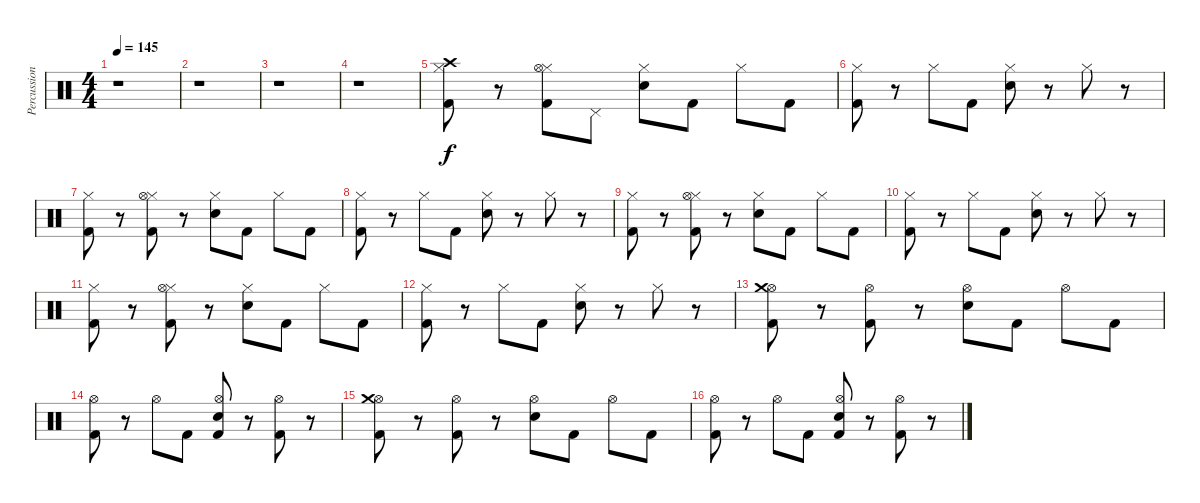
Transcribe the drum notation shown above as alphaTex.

\track ("Percussion" "Percussion") {instrument percussion}
\staff {score}
\articulation defaults
\ts (4 4)
\tempo 145
\clef neutral
\ks c
r.1{dy f} |
r.1 |
r.1 |
r.1 |
("Hi-Hat (closed)" "Crash high (hit)" "Kick (hit) 2").8 r.8 ("Hi-Hat (closed)" "Hi-Hat (open)" "Kick (hit) 2").8 "Pedal Hi-Hat (hit)".8 ("Hi-Hat (closed)" "Electric Snare (hit)").8 "Kick (hit) 2".8 "Hi-Hat (closed)".8 "Kick (hit) 2".8 |
("Hi-Hat (closed)" "Kick (hit) 2").8 r.8 "Hi-Hat (closed)".8 "Kick (hit) 2".8 ("Hi-Hat (closed)" "Electric Snare (hit)").8 r.8 "Hi-Hat (closed)".8 r.8 |
("Hi-Hat (closed)" "Kick (hit) 2").8 r.8 ("Hi-Hat (closed)" "Hi-Hat (open)" "Kick (hit) 2").8 r.8 ("Hi-Hat (closed)" "Electric Snare (hit)").8 "Kick (hit) 2".8 "Hi-Hat (closed)".8 "Kick (hit) 2".8 |
("Hi-Hat (closed)" "Kick (hit) 2").8 r.8 "Hi-Hat (closed)".8 "Kick (hit) 2".8 ("Hi-Hat (closed)" "Electric Snare (hit)").8 r.8 "Hi-Hat (closed)".8 r.8 |
("Hi-Hat (closed)" "Kick (hit) 2").8 r.8 ("Hi-Hat (closed)" "Hi-Hat (open)" "Kick (hit) 2").8 r.8 ("Hi-Hat (closed)" "Electric Snare (hit)").8 "Kick (hit) 2".8 "Hi-Hat (closed)".8 "Kick (hit) 2".8 |
("Hi-Hat (closed)" "Kick (hit) 2").8 r.8 "Hi-Hat (closed)".8 "Kick (hit) 2".8 ("Hi-Hat (closed)" "Electric Snare (hit)").8 r.8 "Hi-Hat (closed)".8 r.8 |
("Hi-Hat (closed)" "Kick (hit) 2").8 r.8 ("Hi-Hat (closed)" "Hi-Hat (open)" "Kick (hit) 2").8 r.8 ("Hi-Hat (closed)" "Electric Snare (hit)").8 "Kick (hit) 2".8 "Hi-Hat (closed)".8 "Kick (hit) 2".8 |
("Hi-Hat (closed)" "Kick (hit) 2").8 r.8 "Hi-Hat (closed)".8 "Kick (hit) 2".8 ("Hi-Hat (closed)" "Electric Snare (hit)").8 r.8 "Hi-Hat (closed)".8 r.8 |
("Hi-Hat (open)" "Crash medium (hit)" "Kick (hit) 2").8 r.8 ("Hi-Hat (open)" "Kick (hit) 2").8 r.8 ("Hi-Hat (open)" "Electric Snare (hit)").8 "Kick (hit) 2".8 "Hi-Hat (open)".8 "Kick (hit) 2".8 |
("Hi-Hat (open)" "Kick (hit) 2").8 r.8 "Hi-Hat (open)".8 "Kick (hit) 2".8 ("Hi-Hat (open)" "Electric Snare (hit)" "Kick (hit) 2").8 r.8 ("Hi-Hat (open)" "Kick (hit) 2").8 r.8 |
("Hi-Hat (open)" "Crash medium (hit)" "Kick (hit) 2").8 r.8 ("Hi-Hat (open)" "Kick (hit) 2").8 r.8 ("Hi-Hat (open)" "Electric Snare (hit)").8 "Kick (hit) 2".8 "Hi-Hat (open)".8 "Kick (hit) 2".8 |
("Hi-Hat (open)" "Kick (hit) 2").8 r.8 "Hi-Hat (open)".8 "Kick (hit) 2".8 ("Hi-Hat (open)" "Electric Snare (hit)" "Kick (hit) 2").8 r.8 ("Hi-Hat (open)" "Kick (hit) 2").8 r.8
